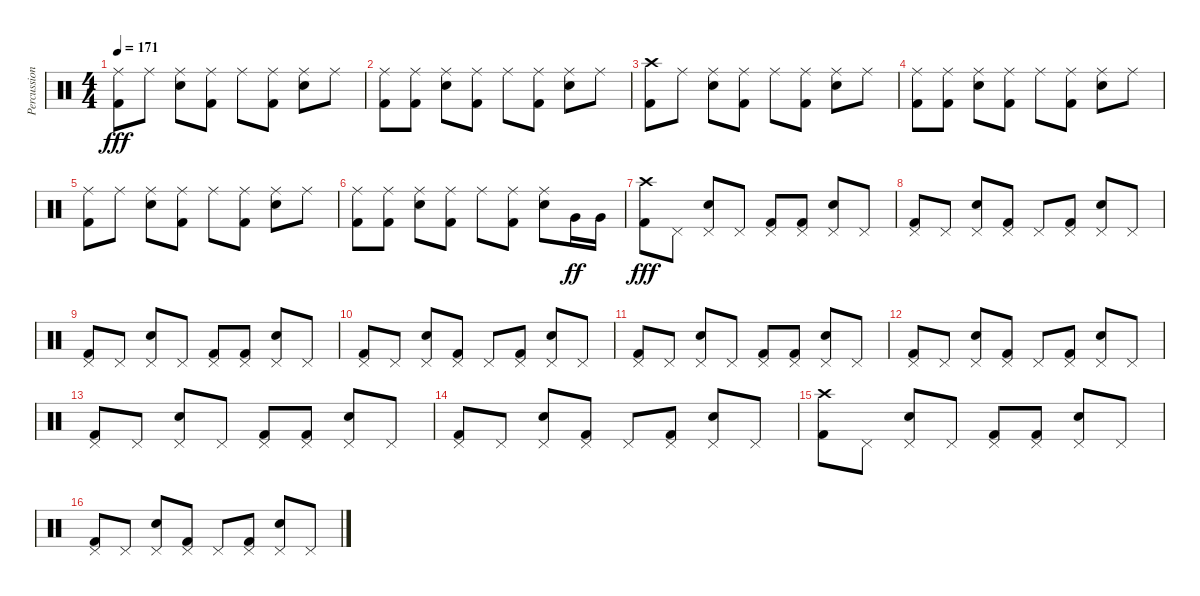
\track ("Percussion" "Percussion") {instrument percussion}
\staff {score}
\articulation defaults
\ts (4 4)
\tempo 171
\clef neutral
\ks c
("Kick (hit) 2" "Ride (middle)").8{dy fff} "Ride (middle)".8 ("Snare (hit) 2" "Ride (middle)").8 ("Kick (hit) 2" "Ride (middle)").8 "Ride (middle)".8 ("Kick (hit) 2" "Ride (middle)").8 ("Snare (hit) 2" "Ride (middle)").8 "Ride (middle)".8 |
("Kick (hit) 2" "Ride (middle)").8 ("Kick (hit) 2" "Ride (middle)").8 ("Snare (hit) 2" "Ride (middle)").8 ("Kick (hit) 2" "Ride (middle)").8 "Ride (middle)".8 ("Kick (hit) 2" "Ride (middle)").8 ("Snare (hit) 2" "Ride (middle)").8 "Ride (middle)".8 |
("Kick (hit) 2" "Crash high (hit)").8 "Ride (middle)".8 ("Snare (hit) 2" "Ride (middle)").8 ("Kick (hit) 2" "Ride (middle)").8 "Ride (middle)".8 ("Kick (hit) 2" "Ride (middle)").8 ("Snare (hit) 2" "Ride (middle)").8 "Ride (middle)".8 |
("Kick (hit) 2" "Ride (middle)").8 ("Kick (hit) 2" "Ride (middle)").8 ("Snare (hit) 2" "Ride (middle)").8 ("Kick (hit) 2" "Ride (middle)").8 "Ride (middle)".8 ("Kick (hit) 2" "Ride (middle)").8 ("Snare (hit) 2" "Ride (middle)").8 "Ride (middle)".8 |
("Kick (hit) 2" "Ride (middle)").8 "Ride (middle)".8 ("Snare (hit) 2" "Ride (middle)").8 ("Kick (hit) 2" "Ride (middle)").8 "Ride (middle)".8 ("Kick (hit) 2" "Ride (middle)").8 ("Snare (hit) 2" "Ride (middle)").8 "Ride (middle)".8 |
("Kick (hit) 2" "Ride (middle)").8 ("Kick (hit) 2" "Ride (middle)").8 ("Snare (hit) 2" "Ride (middle)").8 ("Kick (hit) 2" "Ride (middle)").8 "Ride (middle)".8 ("Kick (hit) 2" "Ride (middle)").8 ("Snare (hit) 2" "Ride (middle)").8 "Very Low Tom (hit)".16{dy ff} "Very Low Tom (hit)".16 |
("Kick (hit) 2" "Crash high (hit)").8{dy fff} "Pedal Hi-Hat (hit)".8 ("Snare (hit) 2" "Pedal Hi-Hat (hit)").8 "Pedal Hi-Hat (hit)".8 ("Kick (hit) 2" "Pedal Hi-Hat (hit)").8 ("Kick (hit) 2" "Pedal Hi-Hat (hit)").8 ("Snare (hit) 2" "Pedal Hi-Hat (hit)").8 "Pedal Hi-Hat (hit)".8 |
("Kick (hit) 2" "Pedal Hi-Hat (hit)").8 "Pedal Hi-Hat (hit)".8 ("Snare (hit) 2" "Pedal Hi-Hat (hit)").8 ("Kick (hit) 2" "Pedal Hi-Hat (hit)").8 "Pedal Hi-Hat (hit)".8 ("Kick (hit) 2" "Pedal Hi-Hat (hit)").8 ("Snare (hit) 2" "Pedal Hi-Hat (hit)").8 "Pedal Hi-Hat (hit)".8 |
("Kick (hit) 2" "Pedal Hi-Hat (hit)").8 "Pedal Hi-Hat (hit)".8 ("Snare (hit) 2" "Pedal Hi-Hat (hit)").8 "Pedal Hi-Hat (hit)".8 ("Kick (hit) 2" "Pedal Hi-Hat (hit)").8 ("Kick (hit) 2" "Pedal Hi-Hat (hit)").8 ("Snare (hit) 2" "Pedal Hi-Hat (hit)").8 "Pedal Hi-Hat (hit)".8 |
("Kick (hit) 2" "Pedal Hi-Hat (hit)").8 "Pedal Hi-Hat (hit)".8 ("Snare (hit) 2" "Pedal Hi-Hat (hit)").8 ("Kick (hit) 2" "Pedal Hi-Hat (hit)").8 "Pedal Hi-Hat (hit)".8 ("Kick (hit) 2" "Pedal Hi-Hat (hit)").8 ("Snare (hit) 2" "Pedal Hi-Hat (hit)").8 "Pedal Hi-Hat (hit)".8 |
("Kick (hit) 2" "Pedal Hi-Hat (hit)").8 "Pedal Hi-Hat (hit)".8 ("Snare (hit) 2" "Pedal Hi-Hat (hit)").8 "Pedal Hi-Hat (hit)".8 ("Kick (hit) 2" "Pedal Hi-Hat (hit)").8 ("Kick (hit) 2" "Pedal Hi-Hat (hit)").8 ("Snare (hit) 2" "Pedal Hi-Hat (hit)").8 "Pedal Hi-Hat (hit)".8 |
("Kick (hit) 2" "Pedal Hi-Hat (hit)").8 "Pedal Hi-Hat (hit)".8 ("Snare (hit) 2" "Pedal Hi-Hat (hit)").8 ("Kick (hit) 2" "Pedal Hi-Hat (hit)").8 "Pedal Hi-Hat (hit)".8 ("Kick (hit) 2" "Pedal Hi-Hat (hit)").8 ("Snare (hit) 2" "Pedal Hi-Hat (hit)").8 "Pedal Hi-Hat (hit)".8 |
("Kick (hit) 2" "Pedal Hi-Hat (hit)").8 "Pedal Hi-Hat (hit)".8 ("Snare (hit) 2" "Pedal Hi-Hat (hit)").8 "Pedal Hi-Hat (hit)".8 ("Kick (hit) 2" "Pedal Hi-Hat (hit)").8 ("Kick (hit) 2" "Pedal Hi-Hat (hit)").8 ("Snare (hit) 2" "Pedal Hi-Hat (hit)").8 "Pedal Hi-Hat (hit)".8 |
("Kick (hit) 2" "Pedal Hi-Hat (hit)").8 "Pedal Hi-Hat (hit)".8 ("Snare (hit) 2" "Pedal Hi-Hat (hit)").8 ("Kick (hit) 2" "Pedal Hi-Hat (hit)").8 "Pedal Hi-Hat (hit)".8 ("Kick (hit) 2" "Pedal Hi-Hat (hit)").8 ("Snare (hit) 2" "Pedal Hi-Hat (hit)").8 "Pedal Hi-Hat (hit)".8 |
("Kick (hit) 2" "Crash high (hit)").8 "Pedal Hi-Hat (hit)".8 ("Snare (hit) 2" "Pedal Hi-Hat (hit)").8 "Pedal Hi-Hat (hit)".8 ("Kick (hit) 2" "Pedal Hi-Hat (hit)").8 ("Kick (hit) 2" "Pedal Hi-Hat (hit)").8 ("Snare (hit) 2" "Pedal Hi-Hat (hit)").8 "Pedal Hi-Hat (hit)".8 |
("Kick (hit) 2" "Pedal Hi-Hat (hit)").8 "Pedal Hi-Hat (hit)".8 ("Snare (hit) 2" "Pedal Hi-Hat (hit)").8 ("Kick (hit) 2" "Pedal Hi-Hat (hit)").8 "Pedal Hi-Hat (hit)".8 ("Kick (hit) 2" "Pedal Hi-Hat (hit)").8 ("Snare (hit) 2" "Pedal Hi-Hat (hit)").8 "Pedal Hi-Hat (hit)".8
